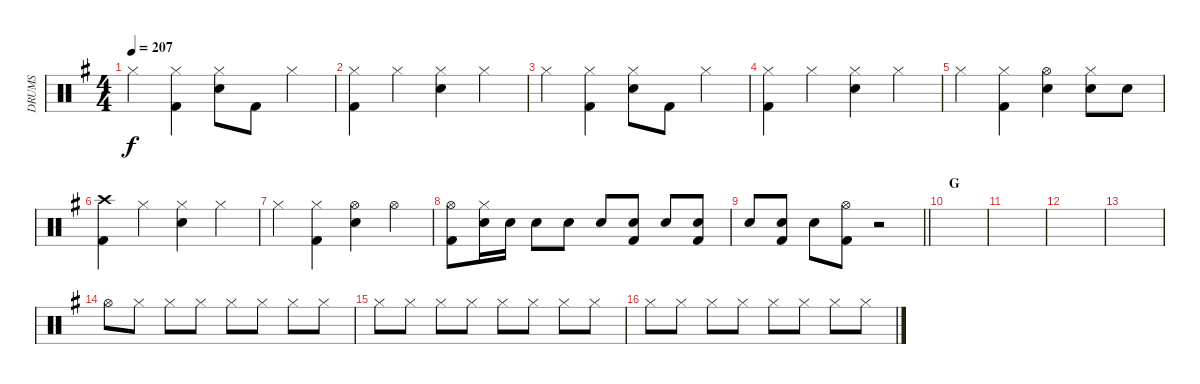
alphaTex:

\track ("DRUMS" "DRUMS") {instrument percussion}
\staff {score}
\articulation defaults
\ts (4 4)
\tempo 207
\clef neutral
\ks eminor "Hi-Hat (closed)".4{dy f}
("Hi-Hat (closed)" "Kick (hit) 2").4 ("Hi-Hat (closed)" "Snare (hit) 2").8 "Kick (hit) 2".8 "Hi-Hat (closed)".4 |
("Hi-Hat (closed)" "Kick (hit) 2").4 "Hi-Hat (closed)".4 ("Hi-Hat (closed)" "Snare (hit) 2").4 "Hi-Hat (closed)".4 |
"Hi-Hat (closed)".4 ("Hi-Hat (closed)" "Kick (hit) 2").4 ("Hi-Hat (closed)" "Snare (hit) 2").8 "Kick (hit) 2".8 "Hi-Hat (closed)".4 |
("Hi-Hat (closed)" "Kick (hit) 2").4 "Hi-Hat (closed)".4 ("Hi-Hat (closed)" "Snare (hit) 2").4 "Hi-Hat (closed)".4 |
"Hi-Hat (closed)".4 ("Hi-Hat (closed)" "Kick (hit) 2").4 ("Hi-Hat (open)" "Snare (hit) 2").4 ("Hi-Hat (closed)" "Snare (hit) 2").8 "Snare (hit) 2".8 |
("Crash high (hit)" "Kick (hit) 2").4 "Hi-Hat (closed)".4 ("Hi-Hat (closed)" "Snare (hit) 2").4 "Hi-Hat (closed)".4 |
"Hi-Hat (closed)".4 ("Hi-Hat (closed)" "Kick (hit) 2").4 ("Hi-Hat (open)" "Snare (hit) 2").4 "Hi-Hat (open)".4 |
("Hi-Hat (open)" "Kick (hit) 2").8 ("Hi-Hat (closed)" "Snare (hit) 2").16 "Snare (hit) 2".16 "Snare (hit) 2".8 "Snare (hit) 2".8 "Snare (hit) 2".8 ("Snare (hit) 2" "Kick (hit) 2").8 "Snare (hit) 2".8 ("Snare (hit) 2" "Kick (hit) 2").8 |
\barLineRight lightlight "Snare (hit) 2".8
("Snare (hit) 2" "Kick (hit) 2").8 "Snare (hit) 2".8 ("Hi-Hat (open)" "Kick (hit) 2").8 r.2 |
\section ("" "G")
|
|
|
|
"Hi-Hat (open)".8 "Hi-Hat (closed)".8 "Hi-Hat (closed)".8 "Hi-Hat (closed)".8 "Hi-Hat (closed)".8 "Hi-Hat (closed)".8 "Hi-Hat (closed)".8 "Hi-Hat (closed)".8 |
"Hi-Hat (closed)".8 "Hi-Hat (closed)".8 "Hi-Hat (closed)".8 "Hi-Hat (closed)".8 "Hi-Hat (closed)".8 "Hi-Hat (closed)".8 "Hi-Hat (closed)".8 "Hi-Hat (closed)".8 |
"Hi-Hat (closed)".8 "Hi-Hat (closed)".8 "Hi-Hat (closed)".8 "Hi-Hat (closed)".8 "Hi-Hat (closed)".8 "Hi-Hat (closed)".8 "Hi-Hat (closed)".8 "Hi-Hat (closed)".8
